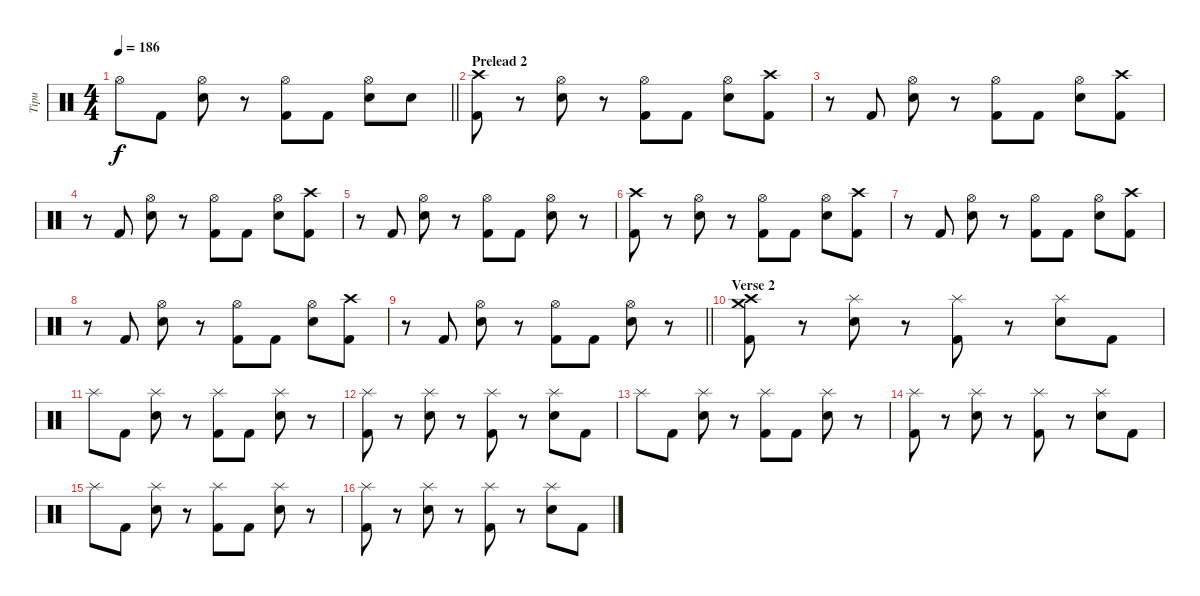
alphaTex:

\track ("Tipu" "Tipu") {instrument percussion}
\staff {score}
\articulation defaults
\ts (4 4)
\tempo 186
\clef neutral
\barLineRight lightlight
\ks c "Hi-Hat (open)".8{dy f} "Kick (hit) 2".8
("Hi-Hat (open)" "Electric Snare (hit)").8 r.8 ("Hi-Hat (open)" "Kick (hit) 2").8 "Kick (hit) 2".8 ("Hi-Hat (open)" "Electric Snare (hit)").8 "Electric Snare (hit)".8 |
\section ("" "Prelead 2")
("Crash high (hit)" "Kick (hit) 2").8 r.8 ("Hi-Hat (open)" "Electric Snare (hit)").8 r.8 ("Hi-Hat (open)" "Kick (hit) 2").8 "Kick (hit) 2".8 ("Hi-Hat (open)" "Electric Snare (hit)").8 ("Crash high (hit)" "Kick (hit) 2").8 |
r.8 "Kick (hit) 2".8 ("Hi-Hat (open)" "Electric Snare (hit)").8 r.8 ("Hi-Hat (open)" "Kick (hit) 2").8 "Kick (hit) 2".8 ("Hi-Hat (open)" "Electric Snare (hit)").8 ("Crash high (hit)" "Kick (hit) 2").8 |
r.8 "Kick (hit) 2".8 ("Hi-Hat (open)" "Electric Snare (hit)").8 r.8 ("Hi-Hat (open)" "Kick (hit) 2").8 "Kick (hit) 2".8 ("Hi-Hat (open)" "Electric Snare (hit)").8 ("Crash high (hit)" "Kick (hit) 2").8 |
r.8 "Kick (hit) 2".8 ("Hi-Hat (open)" "Electric Snare (hit)").8 r.8 ("Hi-Hat (open)" "Kick (hit) 2").8 "Kick (hit) 2".8 ("Hi-Hat (open)" "Electric Snare (hit)").8 r.8 |
("Crash high (hit)" "Kick (hit) 2").8 r.8 ("Hi-Hat (open)" "Electric Snare (hit)").8 r.8 ("Hi-Hat (open)" "Kick (hit) 2").8 "Kick (hit) 2".8 ("Hi-Hat (open)" "Electric Snare (hit)").8 ("Crash high (hit)" "Kick (hit) 2").8 |
r.8 "Kick (hit) 2".8 ("Hi-Hat (open)" "Electric Snare (hit)").8 r.8 ("Hi-Hat (open)" "Kick (hit) 2").8 "Kick (hit) 2".8 ("Hi-Hat (open)" "Electric Snare (hit)").8 ("Crash high (hit)" "Kick (hit) 2").8 |
r.8 "Kick (hit) 2".8 ("Hi-Hat (open)" "Electric Snare (hit)").8 r.8 ("Hi-Hat (open)" "Kick (hit) 2").8 "Kick (hit) 2".8 ("Hi-Hat (open)" "Electric Snare (hit)").8 ("Crash high (hit)" "Kick (hit) 2").8 |
\barLineRight lightlight
r.8 "Kick (hit) 2".8 ("Hi-Hat (open)" "Electric Snare (hit)").8 r.8 ("Hi-Hat (open)" "Kick (hit) 2").8 "Kick (hit) 2".8 ("Hi-Hat (open)" "Electric Snare (hit)").8 r.8 |
\section ("" "Verse 2")
("Crash high (hit)" "Crash medium (hit)" "Kick (hit) 2").8 r.8 ("Splash (hit)" "Electric Snare (hit)").8 r.8 ("Splash (hit)" "Kick (hit) 2").8 r.8 ("Splash (hit)" "Electric Snare (hit)").8 "Kick (hit) 2".8 |
"Splash (hit)".8 "Kick (hit) 2".8 ("Splash (hit)" "Electric Snare (hit)").8 r.8 ("Splash (hit)" "Kick (hit) 2").8 "Kick (hit) 2".8 ("Splash (hit)" "Electric Snare (hit)").8 r.8 |
("Splash (hit)" "Kick (hit) 2").8 r.8 ("Splash (hit)" "Electric Snare (hit)").8 r.8 ("Splash (hit)" "Kick (hit) 2").8 r.8 ("Splash (hit)" "Electric Snare (hit)").8 "Kick (hit) 2".8 |
"Splash (hit)".8 "Kick (hit) 2".8 ("Splash (hit)" "Electric Snare (hit)").8 r.8 ("Splash (hit)" "Kick (hit) 2").8 "Kick (hit) 2".8 ("Splash (hit)" "Electric Snare (hit)").8 r.8 |
("Splash (hit)" "Kick (hit) 2").8 r.8 ("Splash (hit)" "Electric Snare (hit)").8 r.8 ("Splash (hit)" "Kick (hit) 2").8 r.8 ("Splash (hit)" "Electric Snare (hit)").8 "Kick (hit) 2".8 |
"Splash (hit)".8 "Kick (hit) 2".8 ("Splash (hit)" "Electric Snare (hit)").8 r.8 ("Splash (hit)" "Kick (hit) 2").8 "Kick (hit) 2".8 ("Splash (hit)" "Electric Snare (hit)").8 r.8 |
("Splash (hit)" "Kick (hit) 2").8 r.8 ("Splash (hit)" "Electric Snare (hit)").8 r.8 ("Splash (hit)" "Kick (hit) 2").8 r.8 ("Splash (hit)" "Electric Snare (hit)").8 "Kick (hit) 2".8
